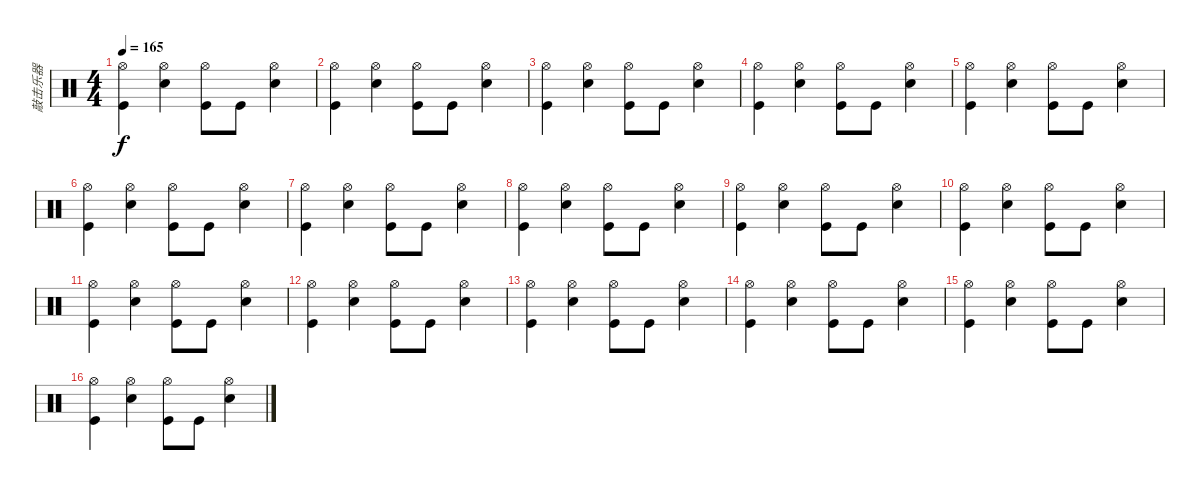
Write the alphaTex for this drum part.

\track ("敲击乐器" "敲击乐器") {instrument percussion}
\staff {score}
\articulation defaults
\ts (4 4)
\tempo 165
\clef neutral
\ks c
("Hi-Hat (open)" "Kick (hit)").4{dy f} ("Hi-Hat (open)" "Electric Snare (hit)").4 ("Hi-Hat (open)" "Kick (hit)").8 "Kick (hit)".8 ("Hi-Hat (open)" "Electric Snare (hit)").4 |
("Hi-Hat (open)" "Kick (hit)").4 ("Hi-Hat (open)" "Electric Snare (hit)").4 ("Hi-Hat (open)" "Kick (hit)").8 "Kick (hit)".8 ("Hi-Hat (open)" "Electric Snare (hit)").4 |
("Hi-Hat (open)" "Kick (hit)").4 ("Hi-Hat (open)" "Electric Snare (hit)").4 ("Hi-Hat (open)" "Kick (hit)").8 "Kick (hit)".8 ("Hi-Hat (open)" "Electric Snare (hit)").4 |
("Hi-Hat (open)" "Kick (hit)").4 ("Hi-Hat (open)" "Electric Snare (hit)").4 ("Hi-Hat (open)" "Kick (hit)").8 "Kick (hit)".8 ("Hi-Hat (open)" "Electric Snare (hit)").4 |
("Hi-Hat (open)" "Kick (hit)").4 ("Hi-Hat (open)" "Electric Snare (hit)").4 ("Hi-Hat (open)" "Kick (hit)").8 "Kick (hit)".8 ("Hi-Hat (open)" "Electric Snare (hit)").4 |
("Hi-Hat (open)" "Kick (hit)").4 ("Hi-Hat (open)" "Electric Snare (hit)").4 ("Hi-Hat (open)" "Kick (hit)").8 "Kick (hit)".8 ("Hi-Hat (open)" "Electric Snare (hit)").4 |
("Hi-Hat (open)" "Kick (hit)").4 ("Hi-Hat (open)" "Electric Snare (hit)").4 ("Hi-Hat (open)" "Kick (hit)").8 "Kick (hit)".8 ("Hi-Hat (open)" "Electric Snare (hit)").4 |
("Hi-Hat (open)" "Kick (hit)").4 ("Hi-Hat (open)" "Electric Snare (hit)").4 ("Hi-Hat (open)" "Kick (hit)").8 "Kick (hit)".8 ("Hi-Hat (open)" "Electric Snare (hit)").4 |
("Hi-Hat (open)" "Kick (hit)").4 ("Hi-Hat (open)" "Electric Snare (hit)").4 ("Hi-Hat (open)" "Kick (hit)").8 "Kick (hit)".8 ("Hi-Hat (open)" "Electric Snare (hit)").4 |
("Hi-Hat (open)" "Kick (hit)").4 ("Hi-Hat (open)" "Electric Snare (hit)").4 ("Hi-Hat (open)" "Kick (hit)").8 "Kick (hit)".8 ("Hi-Hat (open)" "Electric Snare (hit)").4 |
("Hi-Hat (open)" "Kick (hit)").4 ("Hi-Hat (open)" "Electric Snare (hit)").4 ("Hi-Hat (open)" "Kick (hit)").8 "Kick (hit)".8 ("Hi-Hat (open)" "Electric Snare (hit)").4 |
("Hi-Hat (open)" "Kick (hit)").4 ("Hi-Hat (open)" "Electric Snare (hit)").4 ("Hi-Hat (open)" "Kick (hit)").8 "Kick (hit)".8 ("Hi-Hat (open)" "Electric Snare (hit)").4 |
("Hi-Hat (open)" "Kick (hit)").4 ("Hi-Hat (open)" "Electric Snare (hit)").4 ("Hi-Hat (open)" "Kick (hit)").8 "Kick (hit)".8 ("Hi-Hat (open)" "Electric Snare (hit)").4 |
("Hi-Hat (open)" "Kick (hit)").4 ("Hi-Hat (open)" "Electric Snare (hit)").4 ("Hi-Hat (open)" "Kick (hit)").8 "Kick (hit)".8 ("Hi-Hat (open)" "Electric Snare (hit)").4 |
("Hi-Hat (open)" "Kick (hit)").4 ("Hi-Hat (open)" "Electric Snare (hit)").4 ("Hi-Hat (open)" "Kick (hit)").8 "Kick (hit)".8 ("Hi-Hat (open)" "Electric Snare (hit)").4 |
("Hi-Hat (open)" "Kick (hit)").4 ("Hi-Hat (open)" "Electric Snare (hit)").4 ("Hi-Hat (open)" "Kick (hit)").8 "Kick (hit)".8 ("Hi-Hat (open)" "Electric Snare (hit)").4
